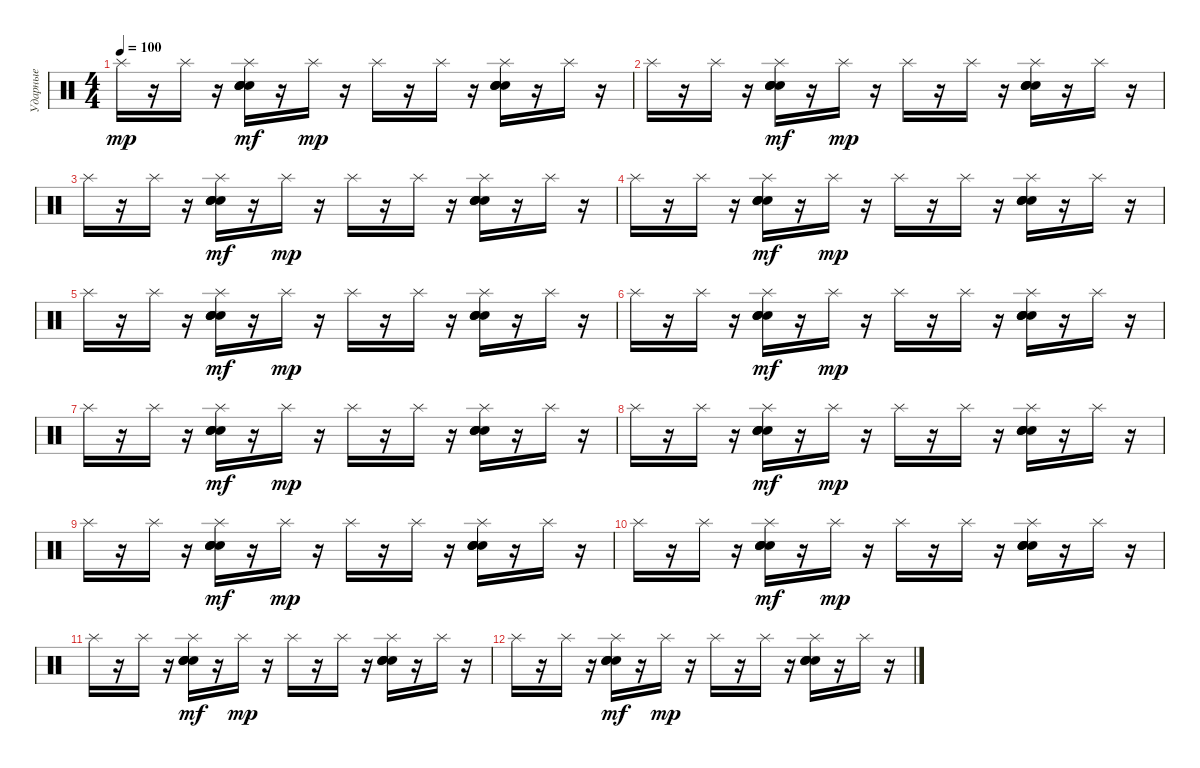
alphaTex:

\track ("Ударные" "Ударные") {instrument percussion}
\staff {score}
\articulation defaults
\ts (4 4)
\tempo 100
\clef neutral
\ks c "Splash (hit)".16{dy mp}
r.16 "Splash (hit)".16 r.16 ("Electric Snare (hit)" "Electric Snare (hit)" "Electric Snare (hit)" "Electric Snare (hit)" "Splash (hit)").16{dy mf} r.16 "Splash (hit)".16{dy mp} r.16 "Splash (hit)".16 r.16 "Splash (hit)".16 r.16 ("Electric Snare (hit)" "Electric Snare (hit)" "Electric Snare (hit)" "Electric Snare (hit)" "Splash (hit)").16 r.16 "Splash (hit)".16 r.16 |
"Splash (hit)".16 r.16 "Splash (hit)".16 r.16 ("Electric Snare (hit)" "Electric Snare (hit)" "Electric Snare (hit)" "Electric Snare (hit)" "Splash (hit)").16{dy mf} r.16 "Splash (hit)".16{dy mp} r.16 "Splash (hit)".16 r.16 "Splash (hit)".16 r.16 ("Electric Snare (hit)" "Electric Snare (hit)" "Electric Snare (hit)" "Electric Snare (hit)" "Splash (hit)").16 r.16 "Splash (hit)".16 r.16 |
"Splash (hit)".16 r.16 "Splash (hit)".16 r.16 ("Electric Snare (hit)" "Electric Snare (hit)" "Electric Snare (hit)" "Electric Snare (hit)" "Splash (hit)").16{dy mf} r.16 "Splash (hit)".16{dy mp} r.16 "Splash (hit)".16 r.16 "Splash (hit)".16 r.16 ("Electric Snare (hit)" "Electric Snare (hit)" "Electric Snare (hit)" "Electric Snare (hit)" "Splash (hit)").16 r.16 "Splash (hit)".16 r.16 |
"Splash (hit)".16 r.16 "Splash (hit)".16 r.16 ("Electric Snare (hit)" "Electric Snare (hit)" "Electric Snare (hit)" "Electric Snare (hit)" "Splash (hit)").16{dy mf} r.16 "Splash (hit)".16{dy mp} r.16 "Splash (hit)".16 r.16 "Splash (hit)".16 r.16 ("Electric Snare (hit)" "Electric Snare (hit)" "Electric Snare (hit)" "Electric Snare (hit)" "Splash (hit)").16 r.16 "Splash (hit)".16 r.16 |
"Splash (hit)".16 r.16 "Splash (hit)".16 r.16 ("Electric Snare (hit)" "Electric Snare (hit)" "Electric Snare (hit)" "Electric Snare (hit)" "Splash (hit)").16{dy mf} r.16 "Splash (hit)".16{dy mp} r.16 "Splash (hit)".16 r.16 "Splash (hit)".16 r.16 ("Electric Snare (hit)" "Electric Snare (hit)" "Electric Snare (hit)" "Electric Snare (hit)" "Splash (hit)").16 r.16 "Splash (hit)".16 r.16 |
"Splash (hit)".16 r.16 "Splash (hit)".16 r.16 ("Electric Snare (hit)" "Electric Snare (hit)" "Electric Snare (hit)" "Electric Snare (hit)" "Splash (hit)").16{dy mf} r.16 "Splash (hit)".16{dy mp} r.16 "Splash (hit)".16 r.16 "Splash (hit)".16 r.16 ("Electric Snare (hit)" "Electric Snare (hit)" "Electric Snare (hit)" "Electric Snare (hit)" "Splash (hit)").16 r.16 "Splash (hit)".16 r.16 |
"Splash (hit)".16 r.16 "Splash (hit)".16 r.16 ("Electric Snare (hit)" "Electric Snare (hit)" "Electric Snare (hit)" "Electric Snare (hit)" "Splash (hit)").16{dy mf} r.16 "Splash (hit)".16{dy mp} r.16 "Splash (hit)".16 r.16 "Splash (hit)".16 r.16 ("Electric Snare (hit)" "Electric Snare (hit)" "Electric Snare (hit)" "Electric Snare (hit)" "Splash (hit)").16 r.16 "Splash (hit)".16 r.16 |
"Splash (hit)".16 r.16 "Splash (hit)".16 r.16 ("Electric Snare (hit)" "Electric Snare (hit)" "Electric Snare (hit)" "Electric Snare (hit)" "Splash (hit)").16{dy mf} r.16 "Splash (hit)".16{dy mp} r.16 "Splash (hit)".16 r.16 "Splash (hit)".16 r.16 ("Electric Snare (hit)" "Electric Snare (hit)" "Electric Snare (hit)" "Electric Snare (hit)" "Splash (hit)").16 r.16 "Splash (hit)".16 r.16 |
"Splash (hit)".16 r.16 "Splash (hit)".16 r.16 ("Electric Snare (hit)" "Electric Snare (hit)" "Electric Snare (hit)" "Electric Snare (hit)" "Splash (hit)").16{dy mf} r.16 "Splash (hit)".16{dy mp} r.16 "Splash (hit)".16 r.16 "Splash (hit)".16 r.16 ("Electric Snare (hit)" "Electric Snare (hit)" "Electric Snare (hit)" "Electric Snare (hit)" "Splash (hit)").16 r.16 "Splash (hit)".16 r.16 |
"Splash (hit)".16 r.16 "Splash (hit)".16 r.16 ("Electric Snare (hit)" "Electric Snare (hit)" "Electric Snare (hit)" "Electric Snare (hit)" "Splash (hit)").16{dy mf} r.16 "Splash (hit)".16{dy mp} r.16 "Splash (hit)".16 r.16 "Splash (hit)".16 r.16 ("Electric Snare (hit)" "Electric Snare (hit)" "Electric Snare (hit)" "Electric Snare (hit)" "Splash (hit)").16 r.16 "Splash (hit)".16 r.16 |
"Splash (hit)".16 r.16 "Splash (hit)".16 r.16 ("Electric Snare (hit)" "Electric Snare (hit)" "Electric Snare (hit)" "Electric Snare (hit)" "Splash (hit)").16{dy mf} r.16 "Splash (hit)".16{dy mp} r.16 "Splash (hit)".16 r.16 "Splash (hit)".16 r.16 ("Electric Snare (hit)" "Electric Snare (hit)" "Electric Snare (hit)" "Electric Snare (hit)" "Splash (hit)").16 r.16 "Splash (hit)".16 r.16 |
"Splash (hit)".16 r.16 "Splash (hit)".16 r.16 ("Electric Snare (hit)" "Electric Snare (hit)" "Electric Snare (hit)" "Electric Snare (hit)" "Splash (hit)").16{dy mf} r.16 "Splash (hit)".16{dy mp} r.16 "Splash (hit)".16 r.16 "Splash (hit)".16 r.16 ("Electric Snare (hit)" "Electric Snare (hit)" "Electric Snare (hit)" "Electric Snare (hit)" "Splash (hit)").16 r.16 "Splash (hit)".16 r.16
